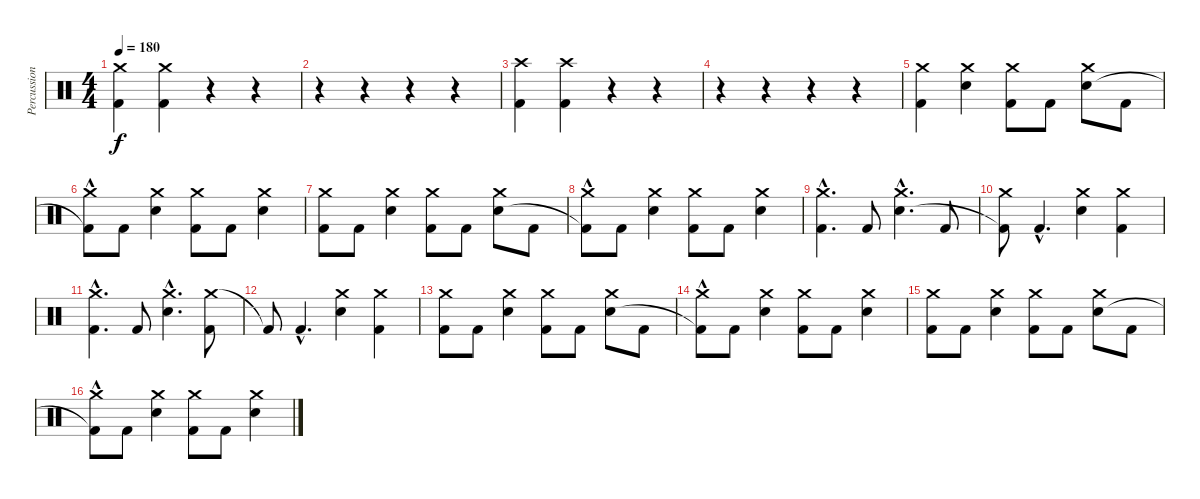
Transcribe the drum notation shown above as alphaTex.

\track ("Percussion" "Percussion") {instrument percussion}
\staff {score}
\articulation defaults
\ts (4 4)
\tempo 180
\clef neutral
\ks c
("Crash medium (hit)" "Kick (hit) 2").4{dy f} ("Crash medium (hit)" "Kick (hit) 2").4 r.4 r.4 |
r.4 r.4 r.4 r.4 |
("Crash high (hit)" "Kick (hit) 2").4 ("Crash high (hit)" "Kick (hit) 2").4 r.4 r.4 |
r.4 r.4 r.4 r.4 |
("Crash medium (hit)" "Kick (hit) 2").4 ("Crash medium (hit)" "Electric Snare (hit)").4 ("Crash medium (hit)" "Kick (hit) 2").8 "Kick (hit) 2".8 ("Crash medium (hit)" "Electric Snare (hit)").8 "Kick (hit) 2".8 |
("Crash medium (hit)" "Kick (hit) 2"{hac t}).8 "Kick (hit) 2".8 ("Crash medium (hit)" "Electric Snare (hit)").4 ("Crash medium (hit)" "Kick (hit) 2").8 "Kick (hit) 2".8 ("Crash medium (hit)" "Electric Snare (hit)").4 |
("Crash medium (hit)" "Kick (hit) 2").8 "Kick (hit) 2".8 ("Crash medium (hit)" "Electric Snare (hit)").4 ("Crash medium (hit)" "Kick (hit) 2").8 "Kick (hit) 2".8 ("Crash medium (hit)" "Electric Snare (hit)").8 "Kick (hit) 2".8 |
("Crash medium (hit)" "Kick (hit) 2"{hac t}).8 "Kick (hit) 2".8 ("Crash medium (hit)" "Electric Snare (hit)").4 ("Crash medium (hit)" "Kick (hit) 2").8 "Kick (hit) 2".8 ("Crash medium (hit)" "Electric Snare (hit)").4 |
("Crash medium (hit)"{hac} "Kick (hit) 2"{hac}).4{d} "Kick (hit) 2".8 ("Crash medium (hit)"{hac} "Electric Snare (hit)"{hac}).4{d} "Kick (hit) 2".8 |
("Crash medium (hit)" "Kick (hit) 2"{t}).8 "Kick (hit) 2"{hac}.4{d} ("Crash medium (hit)" "Electric Snare (hit)").4 ("Crash medium (hit)" "Kick (hit) 2").4 |
("Crash medium (hit)"{hac} "Kick (hit) 2"{hac}).4{d} "Kick (hit) 2".8 ("Crash medium (hit)"{hac} "Electric Snare (hit)"{hac}).4{d} ("Crash medium (hit)" "Kick (hit) 2").8 |
"Kick (hit) 2"{t}.8 "Kick (hit) 2"{hac}.4{d} ("Crash medium (hit)" "Electric Snare (hit)").4 ("Crash medium (hit)" "Kick (hit) 2").4 |
("Crash medium (hit)" "Kick (hit) 2").8 "Kick (hit) 2".8 ("Crash medium (hit)" "Electric Snare (hit)").4 ("Crash medium (hit)" "Kick (hit) 2").8 "Kick (hit) 2".8 ("Crash medium (hit)" "Electric Snare (hit)").8 "Kick (hit) 2".8 |
("Crash medium (hit)" "Kick (hit) 2"{hac t}).8 "Kick (hit) 2".8 ("Crash medium (hit)" "Electric Snare (hit)").4 ("Crash medium (hit)" "Kick (hit) 2").8 "Kick (hit) 2".8 ("Crash medium (hit)" "Electric Snare (hit)").4 |
("Crash medium (hit)" "Kick (hit) 2").8 "Kick (hit) 2".8 ("Crash medium (hit)" "Electric Snare (hit)").4 ("Crash medium (hit)" "Kick (hit) 2").8 "Kick (hit) 2".8 ("Crash medium (hit)" "Electric Snare (hit)").8 "Kick (hit) 2".8 |
("Crash medium (hit)" "Kick (hit) 2"{hac t}).8 "Kick (hit) 2".8 ("Crash medium (hit)" "Electric Snare (hit)").4 ("Crash medium (hit)" "Kick (hit) 2").8 "Kick (hit) 2".8 ("Crash medium (hit)" "Electric Snare (hit)").4
